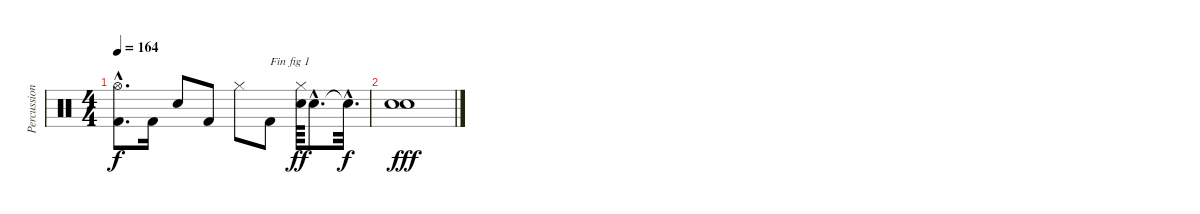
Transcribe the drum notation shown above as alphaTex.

\track ("Percussions" "Percussion") {instrument percussion}
\staff {score}
\articulation defaults
\ts (4 4)
\tempo 164
\clef neutral
\ks c
("Kick (hit) 2"{hac} "Hi-Hat (open)"{hac}).8{d dy f} "Kick (hit) 2".16 "Electric Snare (hit)".8 "Kick (hit) 2".8 "Hi-Hat (closed)".8 "Kick (hit) 2".8{txt "Fin fig 1"} ("Electric Snare (hit)" "Hi-Hat (closed)").64{dy ff} "Electric Snare (hit)"{hac}.8{d} "Snare (hit)"{hac t}.32{d dy f} |
("Electric Snare (hit)" "Electric Snare (hit)").1{dy fff}
